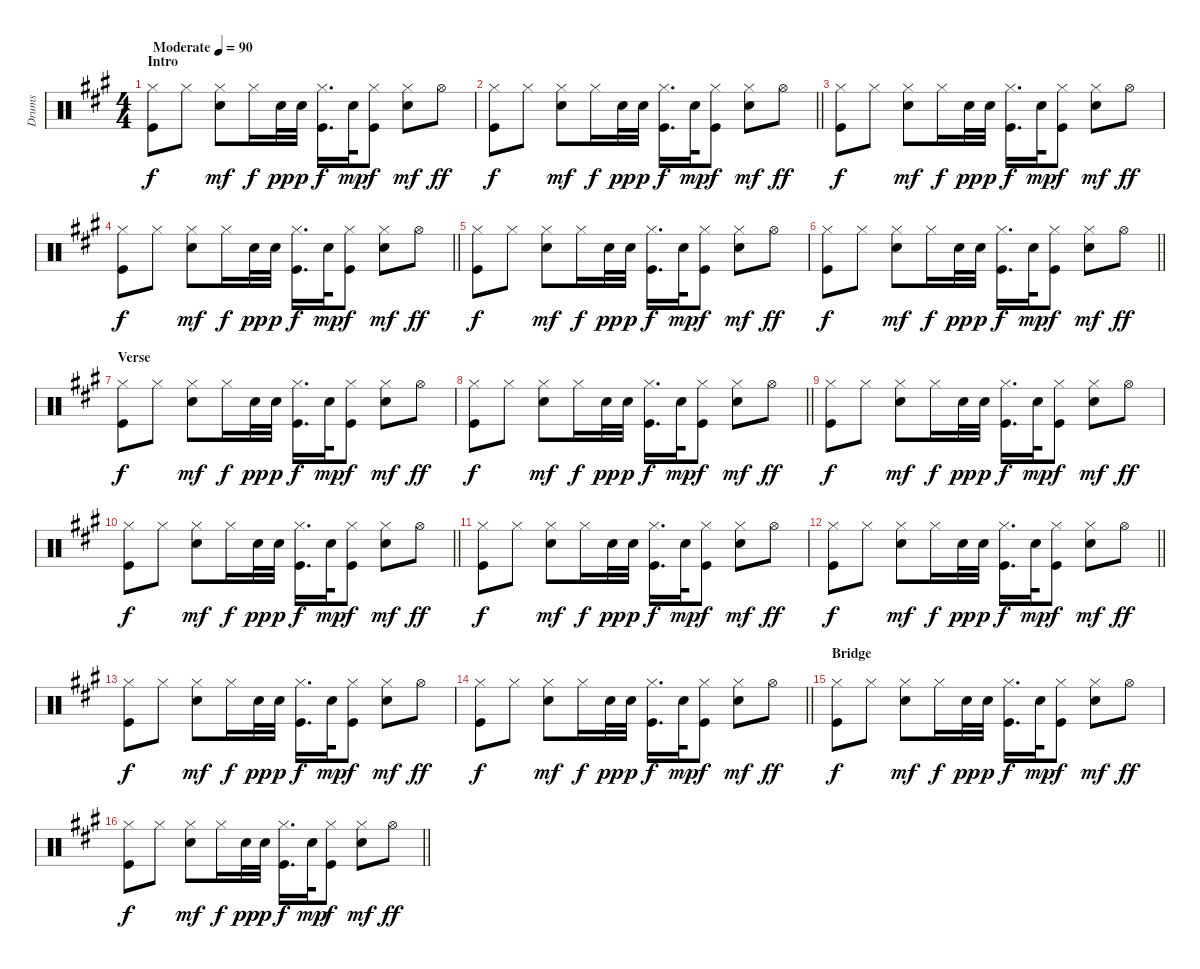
\track ("Drums" "Drums") {instrument percussion}
\staff {score}
\articulation defaults
\ts (4 4)
\section ("" "Intro")
\tempo (90 "Moderate")
\clef neutral
\ks a
("Hi-Hat (closed)" "Kick (hit)").8{dy f} "Hi-Hat (closed)".8 ("Hi-Hat (closed)" "Snare (hit) 2").8{dy mf} "Hi-Hat (closed)".16{dy f} "Snare (hit) 2".32{dy pp} "Snare (hit) 2".32{dy p} ("Hi-Hat (closed)" "Kick (hit)").16{d dy f} "Snare (hit) 2".32{dy mp} ("Hi-Hat (closed)" "Kick (hit)").8{dy f} ("Hi-Hat (closed)" "Snare (hit) 2").8{dy mf} "Hi-Hat (open)".8{dy ff} |
\barLineRight lightlight
("Hi-Hat (closed)" "Kick (hit)").8{dy f} "Hi-Hat (closed)".8 ("Hi-Hat (closed)" "Snare (hit) 2").8{dy mf} "Hi-Hat (closed)".16{dy f} "Snare (hit) 2".32{dy pp} "Snare (hit) 2".32{dy p} ("Hi-Hat (closed)" "Kick (hit)").16{d dy f} "Snare (hit) 2".32{dy mp} ("Hi-Hat (closed)" "Kick (hit)").8{dy f} ("Hi-Hat (closed)" "Snare (hit) 2").8{dy mf} "Hi-Hat (open)".8{dy ff} |
("Hi-Hat (closed)" "Kick (hit)").8{dy f} "Hi-Hat (closed)".8 ("Hi-Hat (closed)" "Snare (hit) 2").8{dy mf} "Hi-Hat (closed)".16{dy f} "Snare (hit) 2".32{dy pp} "Snare (hit) 2".32{dy p} ("Hi-Hat (closed)" "Kick (hit)").16{d dy f} "Snare (hit) 2".32{dy mp} ("Hi-Hat (closed)" "Kick (hit)").8{dy f} ("Hi-Hat (closed)" "Snare (hit) 2").8{dy mf} "Hi-Hat (open)".8{dy ff} |
\barLineRight lightlight
("Hi-Hat (closed)" "Kick (hit)").8{dy f} "Hi-Hat (closed)".8 ("Hi-Hat (closed)" "Snare (hit) 2").8{dy mf} "Hi-Hat (closed)".16{dy f} "Snare (hit) 2".32{dy pp} "Snare (hit) 2".32{dy p} ("Hi-Hat (closed)" "Kick (hit)").16{d dy f} "Snare (hit) 2".32{dy mp} ("Hi-Hat (closed)" "Kick (hit)").8{dy f} ("Hi-Hat (closed)" "Snare (hit) 2").8{dy mf} "Hi-Hat (open)".8{dy ff} |
("Hi-Hat (closed)" "Kick (hit)").8{dy f} "Hi-Hat (closed)".8 ("Hi-Hat (closed)" "Snare (hit) 2").8{dy mf} "Hi-Hat (closed)".16{dy f} "Snare (hit) 2".32{dy pp} "Snare (hit) 2".32{dy p} ("Hi-Hat (closed)" "Kick (hit)").16{d dy f} "Snare (hit) 2".32{dy mp} ("Hi-Hat (closed)" "Kick (hit)").8{dy f} ("Hi-Hat (closed)" "Snare (hit) 2").8{dy mf} "Hi-Hat (open)".8{dy ff} |
\barLineRight lightlight
("Hi-Hat (closed)" "Kick (hit)").8{dy f} "Hi-Hat (closed)".8 ("Hi-Hat (closed)" "Snare (hit) 2").8{dy mf} "Hi-Hat (closed)".16{dy f} "Snare (hit) 2".32{dy pp} "Snare (hit) 2".32{dy p} ("Hi-Hat (closed)" "Kick (hit)").16{d dy f} "Snare (hit) 2".32{dy mp} ("Hi-Hat (closed)" "Kick (hit)").8{dy f} ("Hi-Hat (closed)" "Snare (hit) 2").8{dy mf} "Hi-Hat (open)".8{dy ff} |
\section ("" "Verse")
("Hi-Hat (closed)" "Kick (hit)").8{dy f} "Hi-Hat (closed)".8 ("Hi-Hat (closed)" "Snare (hit) 2").8{dy mf} "Hi-Hat (closed)".16{dy f} "Snare (hit) 2".32{dy pp} "Snare (hit) 2".32{dy p} ("Hi-Hat (closed)" "Kick (hit)").16{d dy f} "Snare (hit) 2".32{dy mp} ("Hi-Hat (closed)" "Kick (hit)").8{dy f} ("Hi-Hat (closed)" "Snare (hit) 2").8{dy mf} "Hi-Hat (open)".8{dy ff} |
\barLineRight lightlight
("Hi-Hat (closed)" "Kick (hit)").8{dy f} "Hi-Hat (closed)".8 ("Hi-Hat (closed)" "Snare (hit) 2").8{dy mf} "Hi-Hat (closed)".16{dy f} "Snare (hit) 2".32{dy pp} "Snare (hit) 2".32{dy p} ("Hi-Hat (closed)" "Kick (hit)").16{d dy f} "Snare (hit) 2".32{dy mp} ("Hi-Hat (closed)" "Kick (hit)").8{dy f} ("Hi-Hat (closed)" "Snare (hit) 2").8{dy mf} "Hi-Hat (open)".8{dy ff} |
("Hi-Hat (closed)" "Kick (hit)").8{dy f} "Hi-Hat (closed)".8 ("Hi-Hat (closed)" "Snare (hit) 2").8{dy mf} "Hi-Hat (closed)".16{dy f} "Snare (hit) 2".32{dy pp} "Snare (hit) 2".32{dy p} ("Hi-Hat (closed)" "Kick (hit)").16{d dy f} "Snare (hit) 2".32{dy mp} ("Hi-Hat (closed)" "Kick (hit)").8{dy f} ("Hi-Hat (closed)" "Snare (hit) 2").8{dy mf} "Hi-Hat (open)".8{dy ff} |
\barLineRight lightlight
("Hi-Hat (closed)" "Kick (hit)").8{dy f} "Hi-Hat (closed)".8 ("Hi-Hat (closed)" "Snare (hit) 2").8{dy mf} "Hi-Hat (closed)".16{dy f} "Snare (hit) 2".32{dy pp} "Snare (hit) 2".32{dy p} ("Hi-Hat (closed)" "Kick (hit)").16{d dy f} "Snare (hit) 2".32{dy mp} ("Hi-Hat (closed)" "Kick (hit)").8{dy f} ("Hi-Hat (closed)" "Snare (hit) 2").8{dy mf} "Hi-Hat (open)".8{dy ff} |
("Hi-Hat (closed)" "Kick (hit)").8{dy f} "Hi-Hat (closed)".8 ("Hi-Hat (closed)" "Snare (hit) 2").8{dy mf} "Hi-Hat (closed)".16{dy f} "Snare (hit) 2".32{dy pp} "Snare (hit) 2".32{dy p} ("Hi-Hat (closed)" "Kick (hit)").16{d dy f} "Snare (hit) 2".32{dy mp} ("Hi-Hat (closed)" "Kick (hit)").8{dy f} ("Hi-Hat (closed)" "Snare (hit) 2").8{dy mf} "Hi-Hat (open)".8{dy ff} |
\barLineRight lightlight
("Hi-Hat (closed)" "Kick (hit)").8{dy f} "Hi-Hat (closed)".8 ("Hi-Hat (closed)" "Snare (hit) 2").8{dy mf} "Hi-Hat (closed)".16{dy f} "Snare (hit) 2".32{dy pp} "Snare (hit) 2".32{dy p} ("Hi-Hat (closed)" "Kick (hit)").16{d dy f} "Snare (hit) 2".32{dy mp} ("Hi-Hat (closed)" "Kick (hit)").8{dy f} ("Hi-Hat (closed)" "Snare (hit) 2").8{dy mf} "Hi-Hat (open)".8{dy ff} |
("Hi-Hat (closed)" "Kick (hit)").8{dy f} "Hi-Hat (closed)".8 ("Hi-Hat (closed)" "Snare (hit) 2").8{dy mf} "Hi-Hat (closed)".16{dy f} "Snare (hit) 2".32{dy pp} "Snare (hit) 2".32{dy p} ("Hi-Hat (closed)" "Kick (hit)").16{d dy f} "Snare (hit) 2".32{dy mp} ("Hi-Hat (closed)" "Kick (hit)").8{dy f} ("Hi-Hat (closed)" "Snare (hit) 2").8{dy mf} "Hi-Hat (open)".8{dy ff} |
\barLineRight lightlight
("Hi-Hat (closed)" "Kick (hit)").8{dy f} "Hi-Hat (closed)".8 ("Hi-Hat (closed)" "Snare (hit) 2").8{dy mf} "Hi-Hat (closed)".16{dy f} "Snare (hit) 2".32{dy pp} "Snare (hit) 2".32{dy p} ("Hi-Hat (closed)" "Kick (hit)").16{d dy f} "Snare (hit) 2".32{dy mp} ("Hi-Hat (closed)" "Kick (hit)").8{dy f} ("Hi-Hat (closed)" "Snare (hit) 2").8{dy mf} "Hi-Hat (open)".8{dy ff} |
\section ("" "Bridge")
("Hi-Hat (closed)" "Kick (hit)").8{dy f} "Hi-Hat (closed)".8 ("Hi-Hat (closed)" "Snare (hit) 2").8{dy mf} "Hi-Hat (closed)".16{dy f} "Snare (hit) 2".32{dy pp} "Snare (hit) 2".32{dy p} ("Hi-Hat (closed)" "Kick (hit)").16{d dy f} "Snare (hit) 2".32{dy mp} ("Hi-Hat (closed)" "Kick (hit)").8{dy f} ("Hi-Hat (closed)" "Snare (hit) 2").8{dy mf} "Hi-Hat (open)".8{dy ff} |
\barLineRight lightlight
("Hi-Hat (closed)" "Kick (hit)").8{dy f} "Hi-Hat (closed)".8 ("Hi-Hat (closed)" "Snare (hit) 2").8{dy mf} "Hi-Hat (closed)".16{dy f} "Snare (hit) 2".32{dy pp} "Snare (hit) 2".32{dy p} ("Hi-Hat (closed)" "Kick (hit)").16{d dy f} "Snare (hit) 2".32{dy mp} ("Hi-Hat (closed)" "Kick (hit)").8{dy f} ("Hi-Hat (closed)" "Snare (hit) 2").8{dy mf} "Hi-Hat (open)".8{dy ff}
